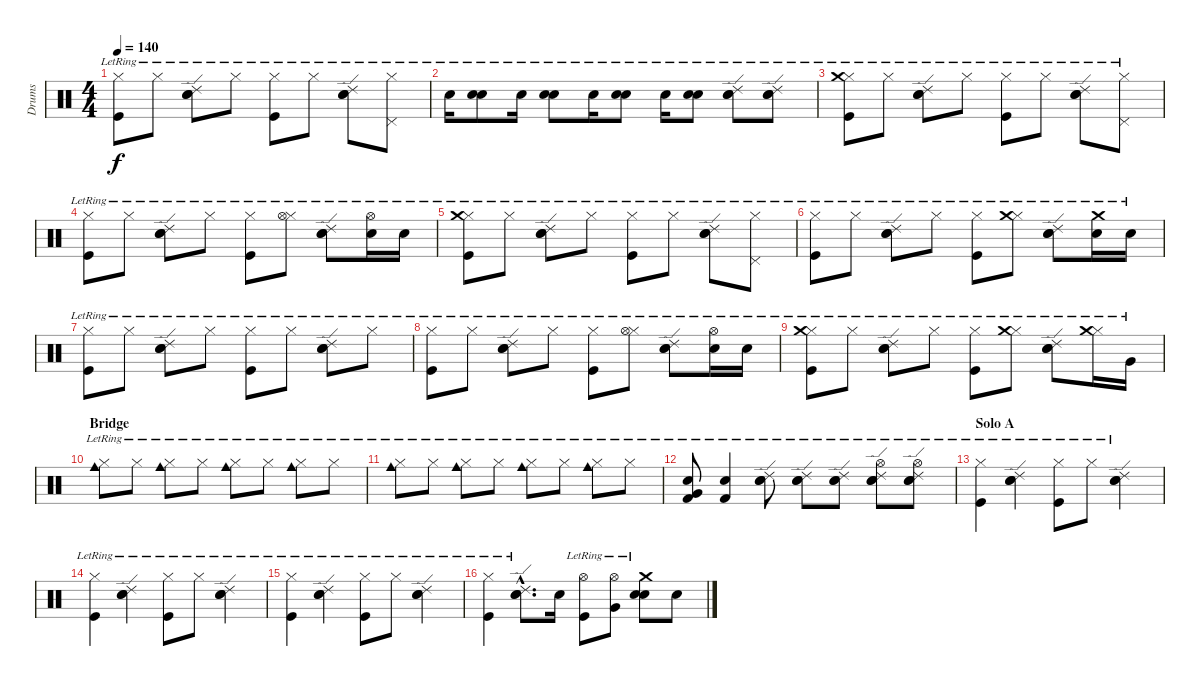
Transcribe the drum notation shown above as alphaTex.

\track ("Drums" "Drums") {instrument percussion}
\staff {score}
\articulation defaults
\ts (4 4)
\tempo 140
\clef neutral
\ks c
("Hi-Hat (closed)"{lr} "Kick (hit)"{lr}).8{dy f} "Hi-Hat (closed)"{lr}.8 ("Electric Snare (hit)"{lr} "Ride (edge) 2"{lr} "Snare (hit) 2"{lr}).8 "Hi-Hat (closed)"{lr}.8 ("Hi-Hat (closed)"{lr} "Kick (hit)"{lr}).8 "Hi-Hat (closed)"{lr}.8 ("Electric Snare (hit)"{lr} "Ride (edge) 2"{lr} "Snare (hit) 2"{lr}).8 ("Hi-Hat (closed)"{lr} "Pedal Hi-Hat (hit)"{lr}).8 |
"Snare (hit) 2"{lr}.16 ("Snare (hit) 2"{lr} "Electric Snare (hit)"{lr}).8 "Snare (hit) 2"{lr}.16 ("Snare (hit) 2"{lr} "Electric Snare (hit)"{lr}).8 "Snare (hit) 2"{lr}.16 ("Snare (hit) 2"{lr} "Electric Snare (hit)"{lr}).8 "Snare (hit) 2"{lr}.16 ("Snare (hit) 2"{lr} "Electric Snare (hit)"{lr}).8 ("Snare (hit) 2"{lr} "Electric Snare (hit)"{lr} "Ride (edge) 2"{lr}).8 ("Snare (hit) 2"{lr} "Electric Snare (hit)"{lr} "Ride (edge) 2"{lr}).8 |
("Hi-Hat (closed)"{lr} "Crash medium (hit)"{lr} "Kick (hit)"{lr}).8 "Hi-Hat (closed)"{lr}.8 ("Electric Snare (hit)"{lr} "Ride (edge) 2"{lr} "Snare (hit) 2"{lr}).8 "Hi-Hat (closed)"{lr}.8 ("Hi-Hat (closed)"{lr} "Kick (hit)"{lr}).8 "Hi-Hat (closed)"{lr}.8 ("Electric Snare (hit)"{lr} "Ride (edge) 2"{lr} "Snare (hit) 2"{lr}).8 ("Hi-Hat (closed)"{lr} "Pedal Hi-Hat (hit)"{lr}).8 |
("Hi-Hat (closed)"{lr} "Kick (hit)"{lr}).8 "Hi-Hat (closed)"{lr}.8 ("Electric Snare (hit)"{lr} "Ride (edge) 2"{lr} "Snare (hit) 2"{lr}).8 "Hi-Hat (closed)"{lr}.8 ("Hi-Hat (closed)"{lr} "Kick (hit)"{lr}).8 ("Hi-Hat (closed)"{lr} "Hi-Hat (open)"{lr}).8 ("Electric Snare (hit)"{lr} "Ride (edge) 2"{lr} "Snare (hit) 2"{lr}).8 ("Hi-Hat (open)"{lr} "Snare (hit) 2"{lr}).16 "Snare (hit) 2"{lr}.16 |
("Hi-Hat (closed)"{lr} "Crash medium (hit)"{lr} "Kick (hit)"{lr}).8 "Hi-Hat (closed)"{lr}.8 ("Electric Snare (hit)"{lr} "Ride (edge) 2"{lr} "Snare (hit) 2"{lr}).8 "Hi-Hat (closed)"{lr}.8 ("Hi-Hat (closed)"{lr} "Kick (hit)"{lr}).8 "Hi-Hat (closed)"{lr}.8 ("Electric Snare (hit)"{lr} "Ride (edge) 2"{lr} "Snare (hit) 2"{lr}).8 ("Hi-Hat (closed)"{lr} "Pedal Hi-Hat (hit)"{lr}).8 |
("Hi-Hat (closed)"{lr} "Kick (hit)"{lr}).8 "Hi-Hat (closed)"{lr}.8 ("Electric Snare (hit)"{lr} "Ride (edge) 2"{lr} "Snare (hit) 2"{lr}).8 "Hi-Hat (closed)"{lr}.8 ("Hi-Hat (closed)"{lr} "Kick (hit)"{lr}).8 ("Hi-Hat (closed)"{lr} "Crash medium (hit)"{lr}).8 ("Electric Snare (hit)"{lr} "Ride (edge) 2"{lr} "Snare (hit) 2"{lr}).8 ("Crash medium (hit)"{lr} "Snare (hit) 2"{lr}).16 "Snare (hit) 2"{lr}.16 |
("Hi-Hat (closed)"{lr} "Kick (hit)"{lr}).8 "Hi-Hat (closed)"{lr}.8 ("Electric Snare (hit)"{lr} "Ride (edge) 2"{lr} "Snare (hit) 2"{lr}).8 "Hi-Hat (closed)"{lr}.8 ("Hi-Hat (closed)"{lr} "Kick (hit)"{lr}).8 "Hi-Hat (closed)"{lr}.8 ("Electric Snare (hit)"{lr} "Ride (edge) 2"{lr} "Snare (hit) 2"{lr}).8 "Hi-Hat (closed)"{lr}.8 |
("Hi-Hat (closed)"{lr} "Kick (hit)"{lr}).8 "Hi-Hat (closed)"{lr}.8 ("Electric Snare (hit)"{lr} "Ride (edge) 2"{lr} "Snare (hit) 2"{lr}).8 "Hi-Hat (closed)"{lr}.8 ("Hi-Hat (closed)"{lr} "Kick (hit)"{lr}).8 ("Hi-Hat (closed)"{lr} "Hi-Hat (open)"{lr}).8 ("Electric Snare (hit)"{lr} "Ride (edge) 2"{lr} "Snare (hit) 2"{lr}).8 ("Hi-Hat (open)"{lr} "Snare (hit) 2"{lr}).16 "Snare (hit) 2"{lr}.16 |
("Hi-Hat (closed)"{lr} "Crash medium (hit)"{lr} "Kick (hit)"{lr}).8 "Hi-Hat (closed)"{lr}.8 ("Electric Snare (hit)"{lr} "Ride (edge) 2"{lr} "Snare (hit) 2"{lr}).8 "Hi-Hat (closed)"{lr}.8 ("Hi-Hat (closed)"{lr} "Kick (hit)"{lr}).8 ("Hi-Hat (closed)"{lr} "Crash medium (hit)"{lr}).8 ("Electric Snare (hit)"{lr} "Ride (edge) 2"{lr} "Snare (hit) 2"{lr}).8 ("Hi-Hat (closed)"{lr} "Crash medium (hit)"{lr}).16 "Very Low Tom (hit)"{lr}.16 |
\section ("" "Bridge")
("Hi-Hat (closed)"{lr} "Cowbell medium (hit)"{lr}).8 "Hi-Hat (closed)"{lr}.8 ("Hi-Hat (closed)"{lr} "Cowbell medium (hit)"{lr}).8 "Hi-Hat (closed)"{lr}.8 ("Hi-Hat (closed)"{lr} "Cowbell medium (hit)"{lr}).8 "Hi-Hat (closed)"{lr}.8 ("Hi-Hat (closed)"{lr} "Cowbell medium (hit)"{lr}).8 "Hi-Hat (closed)"{lr}.8 |
("Hi-Hat (closed)"{lr} "Cowbell medium (hit)"{lr}).8 "Hi-Hat (closed)"{lr}.8 ("Hi-Hat (closed)"{lr} "Cowbell medium (hit)"{lr}).8 "Hi-Hat (closed)"{lr}.8 ("Hi-Hat (closed)"{lr} "Cowbell medium (hit)"{lr}).8 "Hi-Hat (closed)"{lr}.8 ("Hi-Hat (closed)"{lr} "Cowbell medium (hit)"{lr}).8 "Hi-Hat (closed)"{lr}.8 |
("Kick (hit) 2"{lr} "Very Low Tom (hit)"{lr} "Electric Snare (hit)"{lr}).8 ("Kick (hit) 2"{lr} "Electric Snare (hit)"{lr}).4 ("Snare (hit) 2"{lr} "Electric Snare (hit)"{lr} "Ride (edge) 2"{lr}).8 ("Snare (hit) 2"{lr} "Electric Snare (hit)"{lr} "Ride (edge) 2"{lr}).8 ("Snare (hit) 2"{lr} "Electric Snare (hit)"{lr} "Ride (edge) 2"{lr}).8 ("Snare (hit) 2"{lr} "Electric Snare (hit)"{lr} "Ride (edge) 2"{lr} "Hi-Hat (open)"{lr}).8 ("Snare (hit) 2"{lr} "Electric Snare (hit)"{lr} "Ride (edge) 2"{lr} "Hi-Hat (open)"{lr}).8 |
\section ("" "Solo A")
("Hi-Hat (closed)"{lr} "Kick (hit)"{lr}).4 ("Electric Snare (hit)"{lr} "Ride (edge) 2"{lr} "Snare (hit) 2"{lr}).4 ("Hi-Hat (closed)"{lr} "Kick (hit)"{lr}).8 "Hi-Hat (closed)"{lr}.8 ("Electric Snare (hit)"{lr} "Ride (edge) 2"{lr} "Snare (hit) 2"{lr}).4 |
("Hi-Hat (closed)"{lr} "Kick (hit)"{lr}).4 ("Electric Snare (hit)"{lr} "Ride (edge) 2"{lr} "Snare (hit) 2"{lr}).4 ("Hi-Hat (closed)"{lr} "Kick (hit)"{lr}).8 "Hi-Hat (closed)"{lr}.8 ("Electric Snare (hit)"{lr} "Ride (edge) 2"{lr} "Snare (hit) 2"{lr}).4 |
("Hi-Hat (closed)"{lr} "Kick (hit)"{lr}).4 ("Electric Snare (hit)"{lr} "Ride (edge) 2"{lr} "Snare (hit) 2"{lr}).4 ("Hi-Hat (closed)"{lr} "Kick (hit)"{lr}).8 "Hi-Hat (closed)"{lr}.8 ("Electric Snare (hit)"{lr} "Ride (edge) 2"{lr} "Snare (hit) 2"{lr}).4 |
("Hi-Hat (closed)"{lr} "Kick (hit)"{lr}).4 ("Electric Snare (hit)"{hac lr} "Ride (edge) 2"{hac lr} "Snare (hit) 2"{hac lr}).8{d} "Snare (hit) 2".16 ("Hi-Hat (open)"{lr} "Kick (hit)"{lr}).8 ("Hi-Hat (open)"{lr} "Very Low Tom (hit)"{lr}).8 ("Electric Snare (hit)"{lr} "Crash medium (hit)"{lr} "Snare (hit) 2"{lr}).8 "Snare (hit) 2".8
